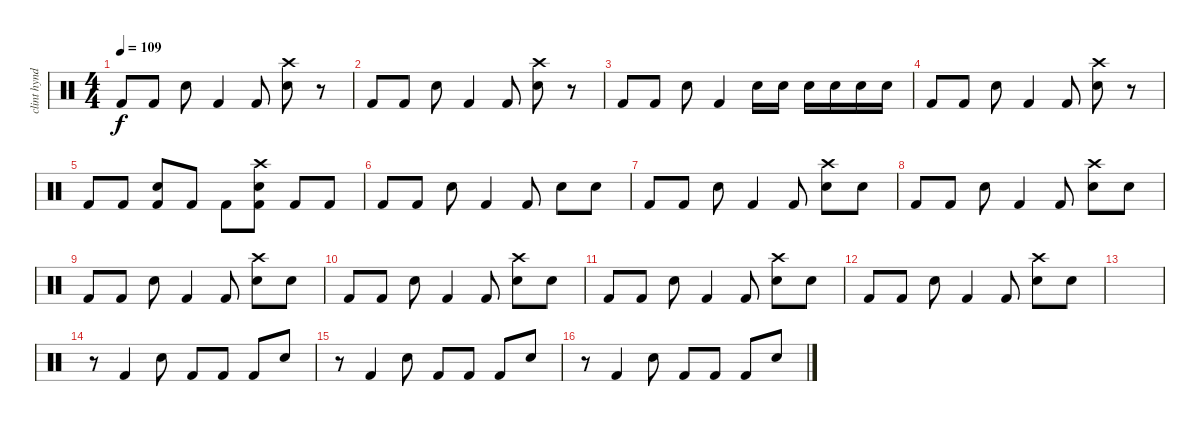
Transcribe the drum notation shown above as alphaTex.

\track ("clint hyndman" "clint hynd") {instrument percussion}
\staff {score}
\articulation defaults
\ts (4 4)
\tempo 109
\clef neutral
\ks c "Kick (hit) 2".8{dy f} "Kick (hit) 2".8 "Electric Snare (hit)".8 "Kick (hit) 2".4 "Kick (hit) 2".8
("Crash high (hit)" "Electric Snare (hit)").8 r.8 |
"Kick (hit) 2".8 "Kick (hit) 2".8 "Electric Snare (hit)".8 "Kick (hit) 2".4 "Kick (hit) 2".8 ("Crash high (hit)" "Electric Snare (hit)").8 r.8 |
"Kick (hit) 2".8 "Kick (hit) 2".8 "Electric Snare (hit)".8 "Kick (hit) 2".4 "Electric Snare (hit)".16 "Electric Snare (hit)".16 "Electric Snare (hit)".16 "Electric Snare (hit)".16 "Electric Snare (hit)".16 "Electric Snare (hit)".16 |
"Kick (hit) 2".8 "Kick (hit) 2".8 "Electric Snare (hit)".8 "Kick (hit) 2".4 "Kick (hit) 2".8 ("Crash high (hit)" "Electric Snare (hit)").8 r.8 |
"Kick (hit) 2".8 "Kick (hit) 2".8 ("Electric Snare (hit)" "Kick (hit) 2").8 "Kick (hit) 2".8 "Kick (hit) 2".8 ("Crash high (hit)" "Electric Snare (hit)" "Kick (hit) 2").8 "Kick (hit) 2".8 "Kick (hit) 2".8 |
"Kick (hit) 2".8 "Kick (hit) 2".8 "Electric Snare (hit)".8 "Kick (hit) 2".4 "Kick (hit) 2".8 "Electric Snare (hit)".8 "Electric Snare (hit)".8 |
"Kick (hit) 2".8 "Kick (hit) 2".8 "Electric Snare (hit)".8 "Kick (hit) 2".4 "Kick (hit) 2".8 ("Crash high (hit)" "Electric Snare (hit)").8 "Electric Snare (hit)".8 |
"Kick (hit) 2".8 "Kick (hit) 2".8 "Electric Snare (hit)".8 "Kick (hit) 2".4 "Kick (hit) 2".8 ("Crash high (hit)" "Electric Snare (hit)").8 "Electric Snare (hit)".8 |
"Kick (hit) 2".8 "Kick (hit) 2".8 "Electric Snare (hit)".8 "Kick (hit) 2".4 "Kick (hit) 2".8 ("Crash high (hit)" "Electric Snare (hit)").8 "Electric Snare (hit)".8 |
"Kick (hit) 2".8 "Kick (hit) 2".8 "Electric Snare (hit)".8 "Kick (hit) 2".4 "Kick (hit) 2".8 ("Crash high (hit)" "Electric Snare (hit)").8 "Electric Snare (hit)".8 |
"Kick (hit) 2".8 "Kick (hit) 2".8 "Electric Snare (hit)".8 "Kick (hit) 2".4 "Kick (hit) 2".8 ("Crash high (hit)" "Electric Snare (hit)").8 "Electric Snare (hit)".8 |
"Kick (hit) 2".8 "Kick (hit) 2".8 "Electric Snare (hit)".8 "Kick (hit) 2".4 "Kick (hit) 2".8 ("Crash high (hit)" "Electric Snare (hit)").8 "Electric Snare (hit)".8 |
|
r.8 "Kick (hit) 2".4 "Electric Snare (hit)".8 "Kick (hit) 2".8 "Kick (hit) 2".8 "Kick (hit) 2".8 "Electric Snare (hit)".8 |
r.8 "Kick (hit) 2".4 "Electric Snare (hit)".8 "Kick (hit) 2".8 "Kick (hit) 2".8 "Kick (hit) 2".8 "Electric Snare (hit)".8 |
r.8 "Kick (hit) 2".4 "Electric Snare (hit)".8 "Kick (hit) 2".8 "Kick (hit) 2".8 "Kick (hit) 2".8 "Electric Snare (hit)".8
